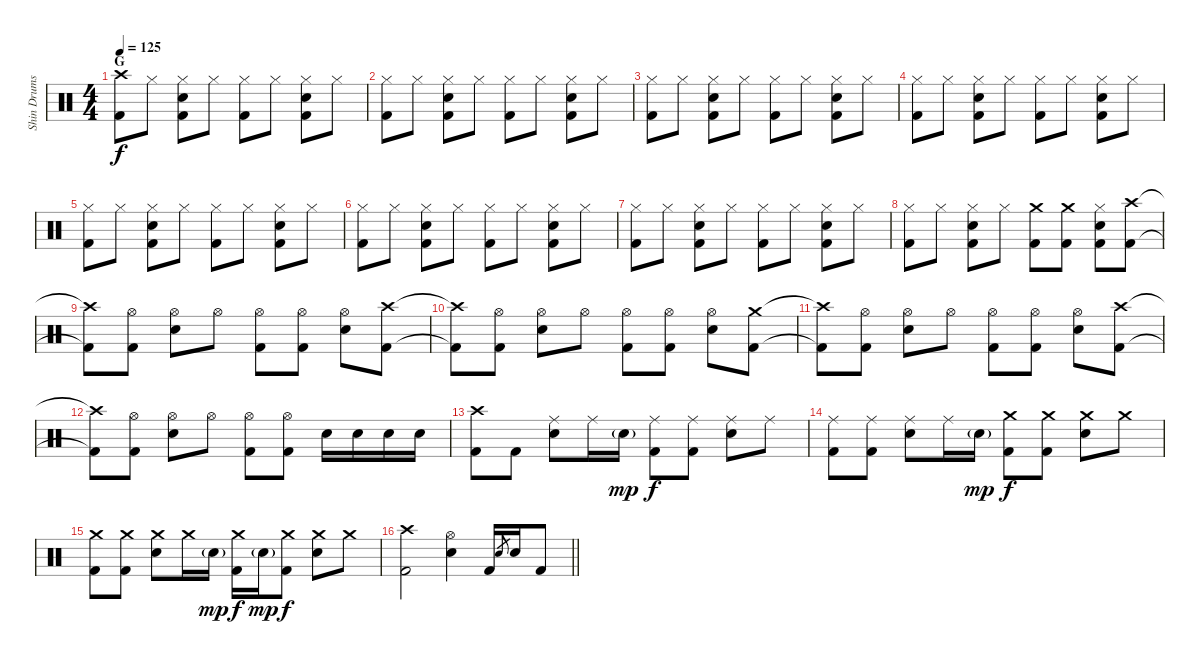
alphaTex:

\track ("Shin Drums" "Shin Drums") {instrument percussion}
\staff {score}
\articulation defaults
\ts (4 4)
\section ("" "G")
\tempo 125
\clef neutral
\ks c
("Crash high (hit)" "Kick (hit) 2").8{dy f} "Hi-Hat (closed)".8 ("Hi-Hat (closed)" "Snare (hit) 2" "Kick (hit) 2").8 "Hi-Hat (closed)".8 ("Hi-Hat (closed)" "Kick (hit) 2").8 "Hi-Hat (closed)".8 ("Hi-Hat (closed)" "Snare (hit) 2" "Kick (hit) 2").8 "Hi-Hat (closed)".8 |
("Hi-Hat (closed)" "Kick (hit) 2").8 "Hi-Hat (closed)".8 ("Hi-Hat (closed)" "Snare (hit) 2" "Kick (hit) 2").8 "Hi-Hat (closed)".8 ("Hi-Hat (closed)" "Kick (hit) 2").8 "Hi-Hat (closed)".8 ("Hi-Hat (closed)" "Snare (hit) 2" "Kick (hit) 2").8 "Hi-Hat (closed)".8 |
("Hi-Hat (closed)" "Kick (hit) 2").8 "Hi-Hat (closed)".8 ("Hi-Hat (closed)" "Snare (hit) 2" "Kick (hit) 2").8 "Hi-Hat (closed)".8 ("Hi-Hat (closed)" "Kick (hit) 2").8 "Hi-Hat (closed)".8 ("Hi-Hat (closed)" "Snare (hit) 2" "Kick (hit) 2").8 "Hi-Hat (closed)".8 |
("Hi-Hat (closed)" "Kick (hit) 2").8 "Hi-Hat (closed)".8 ("Hi-Hat (closed)" "Snare (hit) 2" "Kick (hit) 2").8 "Hi-Hat (closed)".8 ("Hi-Hat (closed)" "Kick (hit) 2").8 "Hi-Hat (closed)".8 ("Hi-Hat (closed)" "Snare (hit) 2" "Kick (hit) 2").8 "Hi-Hat (closed)".8 |
("Hi-Hat (closed)" "Kick (hit) 2").8 "Hi-Hat (closed)".8 ("Hi-Hat (closed)" "Snare (hit) 2" "Kick (hit) 2").8 "Hi-Hat (closed)".8 ("Hi-Hat (closed)" "Kick (hit) 2").8 "Hi-Hat (closed)".8 ("Hi-Hat (closed)" "Snare (hit) 2" "Kick (hit) 2").8 "Hi-Hat (closed)".8 |
("Hi-Hat (closed)" "Kick (hit) 2").8 "Hi-Hat (closed)".8 ("Hi-Hat (closed)" "Snare (hit) 2" "Kick (hit) 2").8 "Hi-Hat (closed)".8 ("Hi-Hat (closed)" "Kick (hit) 2").8 "Hi-Hat (closed)".8 ("Hi-Hat (closed)" "Snare (hit) 2" "Kick (hit) 2").8 "Hi-Hat (closed)".8 |
("Hi-Hat (closed)" "Kick (hit) 2").8 "Hi-Hat (closed)".8 ("Hi-Hat (closed)" "Snare (hit) 2" "Kick (hit) 2").8 "Hi-Hat (closed)".8 ("Hi-Hat (closed)" "Kick (hit) 2").8 "Hi-Hat (closed)".8 ("Hi-Hat (closed)" "Snare (hit) 2" "Kick (hit) 2").8 "Hi-Hat (closed)".8 |
("Hi-Hat (closed)" "Kick (hit) 2").8 "Hi-Hat (closed)".8 ("Hi-Hat (closed)" "Snare (hit) 2" "Kick (hit) 2").8 "Hi-Hat (closed)".8 ("Crash medium (hit)" "Kick (hit) 2").8 ("Crash medium (hit)" "Kick (hit) 2").8 ("Hi-Hat (closed)" "Snare (hit) 2" "Kick (hit) 2").8 ("Crash high (hit)" "Kick (hit) 2").8 |
("Crash high (hit)"{t} "Kick (hit) 2"{t}).8 ("Hi-Hat (open)" "Kick (hit) 2").8 ("Hi-Hat (open)" "Snare (hit) 2").8 "Hi-Hat (open)".8 ("Hi-Hat (open)" "Kick (hit) 2").8 ("Hi-Hat (open)" "Kick (hit) 2").8 ("Hi-Hat (open)" "Snare (hit) 2").8 ("Crash high (hit)" "Kick (hit) 2").8 |
("Crash high (hit)"{t} "Kick (hit) 2"{t}).8 ("Hi-Hat (open)" "Kick (hit) 2").8 ("Hi-Hat (open)" "Snare (hit) 2").8 "Hi-Hat (open)".8 ("Hi-Hat (open)" "Kick (hit) 2").8 ("Hi-Hat (open)" "Kick (hit) 2").8 ("Hi-Hat (open)" "Snare (hit) 2").8 ("Crash medium (hit)" "Kick (hit) 2").8 |
("Crash high (hit)"{t} "Kick (hit) 2"{t}).8 ("Hi-Hat (open)" "Kick (hit) 2").8 ("Hi-Hat (open)" "Snare (hit) 2").8 "Hi-Hat (open)".8 ("Hi-Hat (open)" "Kick (hit) 2").8 ("Hi-Hat (open)" "Kick (hit) 2").8 ("Hi-Hat (open)" "Snare (hit) 2").8 ("Crash high (hit)" "Kick (hit) 2").8 |
("Crash high (hit)"{t} "Kick (hit) 2"{t}).8 ("Hi-Hat (open)" "Kick (hit) 2").8 ("Hi-Hat (open)" "Snare (hit) 2").8 "Hi-Hat (open)".8 ("Hi-Hat (open)" "Kick (hit) 2").8 ("Hi-Hat (open)" "Kick (hit) 2").8 "Snare (hit) 2".16 "Snare (hit) 2".16 "Snare (hit) 2".16 "Snare (hit) 2".16 |
("Crash high (hit)" "Kick (hit) 2").8 "Kick (hit) 2".8 ("Ride (middle)" "Snare (hit) 2").8 "Ride (middle)".16 "Snare (hit) 2"{g}.16{dy mp} ("Ride (middle)" "Kick (hit) 2").8{dy f} ("Ride (middle)" "Kick (hit) 2").8 ("Ride (middle)" "Snare (hit) 2").8 "Ride (middle)".8 |
("Ride (middle)" "Kick (hit) 2").8 ("Ride (middle)" "Kick (hit) 2").8 ("Ride (middle)" "Snare (hit) 2").8 "Ride (middle)".16 "Snare (hit) 2"{g}.16{dy mp} ("Crash medium (hit)" "Kick (hit) 2").8{dy f} ("Crash medium (hit)" "Kick (hit) 2").8 ("Crash medium (hit)" "Snare (hit) 2").8 "Crash medium (hit)".8 |
("Crash medium (hit)" "Kick (hit) 2").8 ("Crash medium (hit)" "Kick (hit) 2").8 ("Crash medium (hit)" "Snare (hit) 2").8 "Crash medium (hit)".16 "Snare (hit) 2"{g}.16{dy mp} ("Crash medium (hit)" "Kick (hit) 2").16{dy f} "Snare (hit) 2"{g}.16{dy mp} ("Crash medium (hit)" "Kick (hit) 2").8{dy f} ("Crash medium (hit)" "Snare (hit) 2").8 "Crash medium (hit)".8 |
\barLineRight lightlight
("Crash high (hit)" "Kick (hit) 2").2 ("Hi-Hat (open)" "Snare (hit) 2").4 "Kick (hit) 2".16 "Snare (hit) 2".8{gr} "Snare (hit) 2".16 "Kick (hit) 2".8
